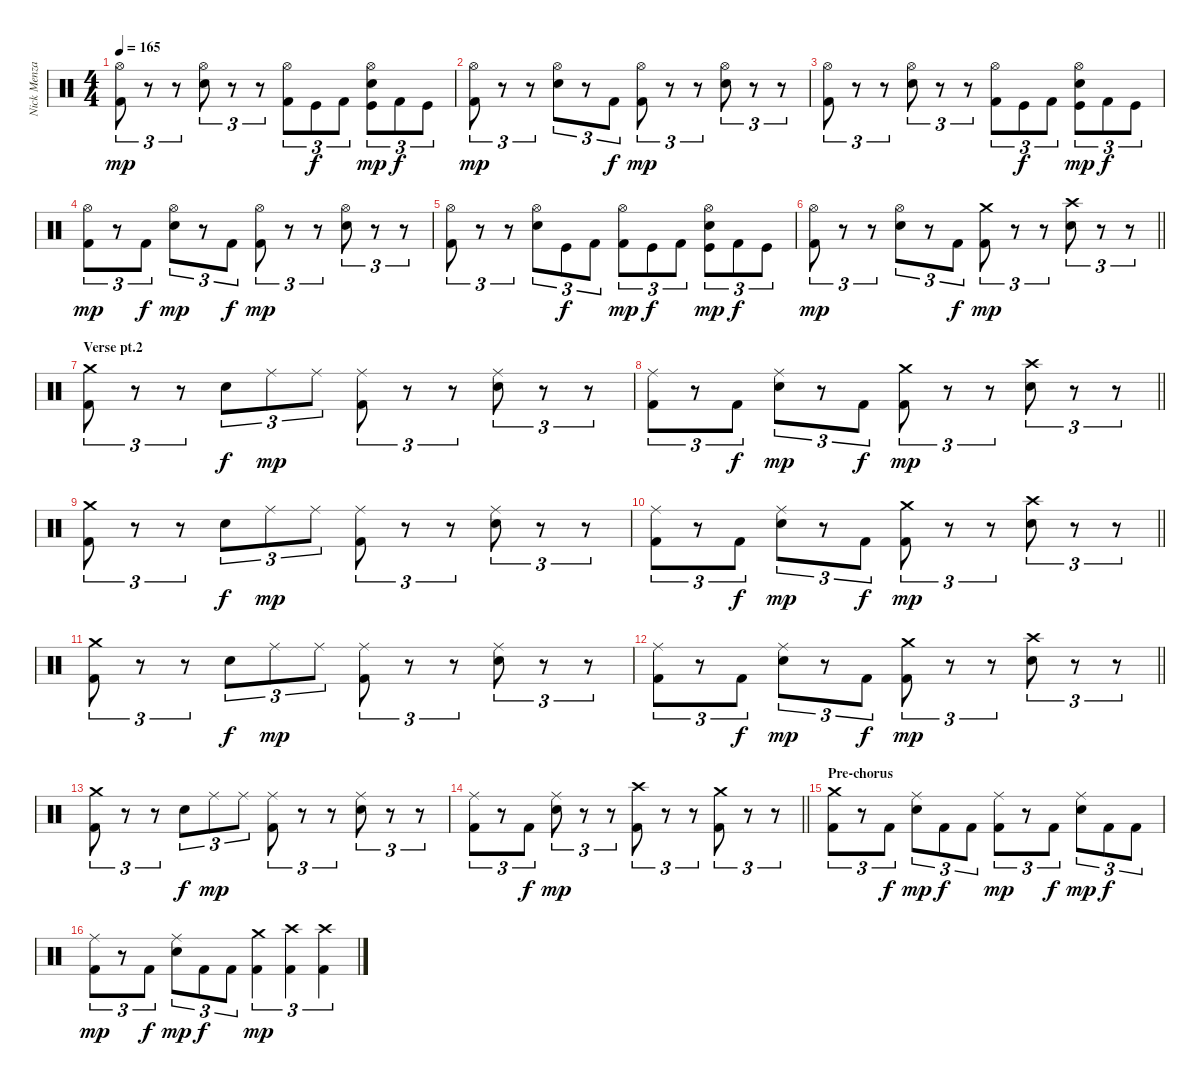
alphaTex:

\track ("Nick Menza" "Nick Menza") {solo instrument percussion}
\staff {score}
\articulation defaults
\ts (4 4)
\tempo 165
\clef neutral
\ks c
("Hi-Hat (open)" "Kick (hit) 2").8{tu (3 2) dy mp} r.8{tu (3 2)} r.8{tu (3 2)} ("Hi-Hat (open)" "Electric Snare (hit)").8{tu (3 2)} r.8{tu (3 2)} r.8{tu (3 2)} ("Hi-Hat (open)" "Kick (hit) 2").8{tu (3 2)} "Kick (hit)".8{tu (3 2) dy f} "Kick (hit) 2".8{tu (3 2)} ("Hi-Hat (open)" "Electric Snare (hit)" "Kick (hit)").8{tu (3 2) dy mp} "Kick (hit) 2".8{tu (3 2) dy f} "Kick (hit)".8{tu (3 2)} |
("Hi-Hat (open)" "Kick (hit) 2").8{tu (3 2) dy mp} r.8{tu (3 2)} r.8{tu (3 2)} ("Hi-Hat (open)" "Electric Snare (hit)").8{tu (3 2)} r.8{tu (3 2)} "Kick (hit) 2".8{tu (3 2) dy f} ("Hi-Hat (open)" "Kick (hit) 2").8{tu (3 2) dy mp} r.8{tu (3 2)} r.8{tu (3 2)} ("Hi-Hat (open)" "Electric Snare (hit)").8{tu (3 2)} r.8{tu (3 2)} r.8{tu (3 2)} |
("Hi-Hat (open)" "Kick (hit) 2").8{tu (3 2)} r.8{tu (3 2)} r.8{tu (3 2)} ("Hi-Hat (open)" "Electric Snare (hit)").8{tu (3 2)} r.8{tu (3 2)} r.8{tu (3 2)} ("Hi-Hat (open)" "Kick (hit) 2").8{tu (3 2)} "Kick (hit)".8{tu (3 2) dy f} "Kick (hit) 2".8{tu (3 2)} ("Hi-Hat (open)" "Electric Snare (hit)" "Kick (hit)").8{tu (3 2) dy mp} "Kick (hit) 2".8{tu (3 2) dy f} "Kick (hit)".8{tu (3 2)} |
("Hi-Hat (open)" "Kick (hit) 2").8{tu (3 2) dy mp} r.8{tu (3 2)} "Kick (hit) 2".8{tu (3 2) dy f} ("Hi-Hat (open)" "Electric Snare (hit)").8{tu (3 2) dy mp} r.8{tu (3 2)} "Kick (hit) 2".8{tu (3 2) dy f} ("Hi-Hat (open)" "Kick (hit) 2").8{tu (3 2) dy mp} r.8{tu (3 2)} r.8{tu (3 2)} ("Hi-Hat (open)" "Electric Snare (hit)").8{tu (3 2)} r.8{tu (3 2)} r.8{tu (3 2)} |
("Hi-Hat (open)" "Kick (hit) 2").8{tu (3 2)} r.8{tu (3 2)} r.8{tu (3 2)} ("Hi-Hat (open)" "Electric Snare (hit)").8{tu (3 2)} "Kick (hit)".8{tu (3 2) dy f} "Kick (hit) 2".8{tu (3 2)} ("Hi-Hat (open)" "Kick (hit) 2").8{tu (3 2) dy mp} "Kick (hit)".8{tu (3 2) dy f} "Kick (hit) 2".8{tu (3 2)} ("Hi-Hat (open)" "Electric Snare (hit)" "Kick (hit)").8{tu (3 2) dy mp} "Kick (hit) 2".8{tu (3 2) dy f} "Kick (hit)".8{tu (3 2)} |
\barLineRight lightlight
("Hi-Hat (open)" "Kick (hit) 2").8{tu (3 2) dy mp} r.8{tu (3 2)} r.8{tu (3 2)} ("Hi-Hat (open)" "Electric Snare (hit)").8{tu (3 2)} r.8{tu (3 2)} "Kick (hit) 2".8{tu (3 2) dy f} ("Crash medium (hit)" "Kick (hit) 2").8{tu (3 2) dy mp} r.8{tu (3 2)} r.8{tu (3 2)} ("Crash high (hit)" "Electric Snare (hit)").8{tu (3 2)} r.8{tu (3 2)} r.8{tu (3 2)} |
\section ("" "Verse pt.2")
("Crash medium (hit)" "Kick (hit) 2").8{tu (3 2)} r.8{tu (3 2)} r.8{tu (3 2)} "Electric Snare (hit)".8{tu (3 2) dy f} "Ride (middle)".8{tu (3 2) dy mp} "Ride (middle)".8{tu (3 2)} ("Ride (middle)" "Kick (hit) 2").8{tu (3 2)} r.8{tu (3 2)} r.8{tu (3 2)} ("Ride (middle)" "Electric Snare (hit)").8{tu (3 2)} r.8{tu (3 2)} r.8{tu (3 2)} |
\barLineRight lightlight
("Ride (middle)" "Kick (hit) 2").8{tu (3 2)} r.8{tu (3 2)} "Kick (hit) 2".8{tu (3 2) dy f} ("Ride (middle)" "Electric Snare (hit)").8{tu (3 2) dy mp} r.8{tu (3 2)} "Kick (hit) 2".8{tu (3 2) dy f} ("Crash medium (hit)" "Kick (hit) 2").8{tu (3 2) dy mp} r.8{tu (3 2)} r.8{tu (3 2)} ("Crash high (hit)" "Electric Snare (hit)").8{tu (3 2)} r.8{tu (3 2)} r.8{tu (3 2)} |
("Crash medium (hit)" "Kick (hit) 2").8{tu (3 2)} r.8{tu (3 2)} r.8{tu (3 2)} "Electric Snare (hit)".8{tu (3 2) dy f} "Ride (middle)".8{tu (3 2) dy mp} "Ride (middle)".8{tu (3 2)} ("Ride (middle)" "Kick (hit) 2").8{tu (3 2)} r.8{tu (3 2)} r.8{tu (3 2)} ("Ride (middle)" "Electric Snare (hit)").8{tu (3 2)} r.8{tu (3 2)} r.8{tu (3 2)} |
\barLineRight lightlight
("Ride (middle)" "Kick (hit) 2").8{tu (3 2)} r.8{tu (3 2)} "Kick (hit) 2".8{tu (3 2) dy f} ("Ride (middle)" "Electric Snare (hit)").8{tu (3 2) dy mp} r.8{tu (3 2)} "Kick (hit) 2".8{tu (3 2) dy f} ("Crash medium (hit)" "Kick (hit) 2").8{tu (3 2) dy mp} r.8{tu (3 2)} r.8{tu (3 2)} ("Crash high (hit)" "Electric Snare (hit)").8{tu (3 2)} r.8{tu (3 2)} r.8{tu (3 2)} |
("Crash medium (hit)" "Kick (hit) 2").8{tu (3 2)} r.8{tu (3 2)} r.8{tu (3 2)} "Electric Snare (hit)".8{tu (3 2) dy f} "Ride (middle)".8{tu (3 2) dy mp} "Ride (middle)".8{tu (3 2)} ("Ride (middle)" "Kick (hit) 2").8{tu (3 2)} r.8{tu (3 2)} r.8{tu (3 2)} ("Ride (middle)" "Electric Snare (hit)").8{tu (3 2)} r.8{tu (3 2)} r.8{tu (3 2)} |
\barLineRight lightlight
("Ride (middle)" "Kick (hit) 2").8{tu (3 2)} r.8{tu (3 2)} "Kick (hit) 2".8{tu (3 2) dy f} ("Ride (middle)" "Electric Snare (hit)").8{tu (3 2) dy mp} r.8{tu (3 2)} "Kick (hit) 2".8{tu (3 2) dy f} ("Crash medium (hit)" "Kick (hit) 2").8{tu (3 2) dy mp} r.8{tu (3 2)} r.8{tu (3 2)} ("Crash high (hit)" "Electric Snare (hit)").8{tu (3 2)} r.8{tu (3 2)} r.8{tu (3 2)} |
("Crash medium (hit)" "Kick (hit) 2").8{tu (3 2)} r.8{tu (3 2)} r.8{tu (3 2)} "Electric Snare (hit)".8{tu (3 2) dy f} "Ride (middle)".8{tu (3 2) dy mp} "Ride (middle)".8{tu (3 2)} ("Ride (middle)" "Kick (hit) 2").8{tu (3 2)} r.8{tu (3 2)} r.8{tu (3 2)} ("Ride (middle)" "Electric Snare (hit)").8{tu (3 2)} r.8{tu (3 2)} r.8{tu (3 2)} |
\barLineRight lightlight
("Ride (middle)" "Kick (hit) 2").8{tu (3 2)} r.8{tu (3 2)} "Kick (hit) 2".8{tu (3 2) dy f} ("Ride (middle)" "Electric Snare (hit)").8{tu (3 2) dy mp} r.8{tu (3 2)} r.8{tu (3 2)} ("Crash high (hit)" "Kick (hit) 2").8{tu (3 2)} r.8{tu (3 2)} r.8{tu (3 2)} ("Crash medium (hit)" "Kick (hit) 2").8{tu (3 2)} r.8{tu (3 2)} r.8{tu (3 2)} |
\section ("" "Pre-chorus")
("Crash medium (hit)" "Kick (hit) 2").8{tu (3 2)} r.8{tu (3 2)} "Kick (hit) 2".8{tu (3 2) dy f} ("Ride (middle)" "Electric Snare (hit)").8{tu (3 2) dy mp} "Kick (hit) 2".8{tu (3 2) dy f} "Kick (hit) 2".8{tu (3 2)} ("Ride (middle)" "Kick (hit) 2").8{tu (3 2) dy mp} r.8{tu (3 2)} "Kick (hit) 2".8{tu (3 2) dy f} ("Ride (middle)" "Electric Snare (hit)").8{tu (3 2) dy mp} "Kick (hit) 2".8{tu (3 2) dy f} "Kick (hit) 2".8{tu (3 2)} |
("Ride (middle)" "Kick (hit) 2").8{tu (3 2) dy mp} r.8{tu (3 2)} "Kick (hit) 2".8{tu (3 2) dy f} ("Ride (middle)" "Electric Snare (hit)").8{tu (3 2) dy mp} "Kick (hit) 2".8{tu (3 2) dy f} "Kick (hit) 2".8{tu (3 2)} ("Crash medium (hit)" "Kick (hit) 2").4{tu (3 2) dy mp} ("Crash high (hit)" "Kick (hit) 2").4{tu (3 2)} ("Crash high (hit)" "Kick (hit) 2").4{tu (3 2)}
